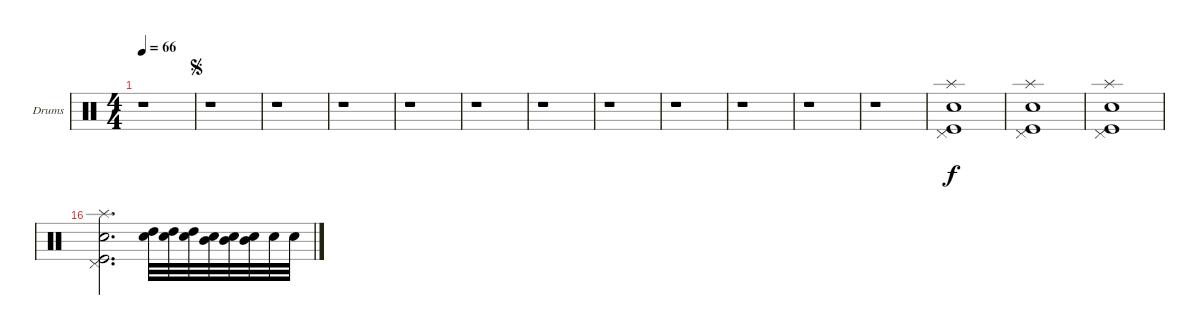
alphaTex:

\bracketExtendMode nobrackets
\firstSystemTrackNameOrientation horizontal
\otherSystemsTrackNameOrientation horizontal
\defaultBarNumberDisplay FirstOfSystem
\track ("Drumkit" "Drums") {instrument percussion}
\staff {score}
\articulation defaults
\ts (4 4)
\tempo 66
\clef neutral
\ks c
r.1{dy f} |
\jump segno
r.1 |
r.1 |
r.1 |
r.1 |
r.1 |
r.1 |
r.1 |
r.1 |
r.1 |
r.1 |
r.1 |
("Splash (hit)" "Snare (hit) 2" "Kick (hit)" "Pedal Hi-Hat (hit)").1 |
("Snare (hit) 2" "Kick (hit)" "Splash (hit)" "Pedal Hi-Hat (hit)").1 |
("Splash (hit)" "Snare (hit) 2" "Kick (hit)" "Pedal Hi-Hat (hit)").1 |
("Splash (hit)" "Snare (hit) 2" "Kick (hit)" "Pedal Hi-Hat (hit)").2{d} ("Snare (hit) 2" "High Tom (hit)").32 ("Snare (hit) 2" "High Tom (hit)").32 ("Snare (hit) 2" "High Tom (hit)").32 ("Snare (hit) 2" "Mid Tom (hit)").32 ("Snare (hit) 2" "Mid Tom (hit)").32 ("Snare (hit) 2" "Mid Tom (hit)").32 "Snare (hit) 2".32 "Snare (hit) 2".32
